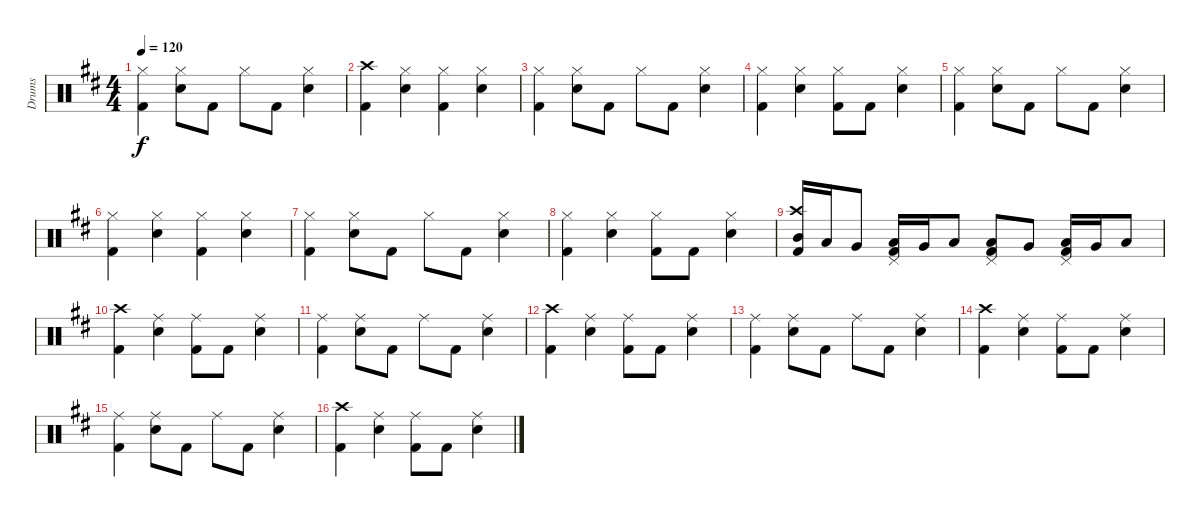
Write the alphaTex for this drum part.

\track ("Drums" "Drums") {instrument percussion}
\staff {score}
\articulation defaults
\ts (4 4)
\tempo 120
\clef neutral
\ks bminor
("Hi-Hat (closed)" "Kick (hit) 2").4{dy f} ("Hi-Hat (closed)" "Electric Snare (hit)").8 "Kick (hit) 2".8 "Hi-Hat (closed)".8 "Kick (hit) 2".8 ("Hi-Hat (closed)" "Electric Snare (hit)").4 |
("Crash high (hit)" "Kick (hit) 2").4 ("Hi-Hat (closed)" "Electric Snare (hit)").4 ("Hi-Hat (closed)" "Kick (hit) 2").4 ("Hi-Hat (closed)" "Electric Snare (hit)").4 |
("Hi-Hat (closed)" "Kick (hit) 2").4 ("Hi-Hat (closed)" "Electric Snare (hit)").8 "Kick (hit) 2".8 "Hi-Hat (closed)".8 "Kick (hit) 2".8 ("Hi-Hat (closed)" "Electric Snare (hit)").4 |
("Hi-Hat (closed)" "Kick (hit) 2").4 ("Hi-Hat (closed)" "Electric Snare (hit)").4 ("Hi-Hat (closed)" "Kick (hit) 2").8 "Kick (hit) 2".8 ("Hi-Hat (closed)" "Electric Snare (hit)").4 |
("Hi-Hat (closed)" "Kick (hit) 2").4 ("Hi-Hat (closed)" "Electric Snare (hit)").8 "Kick (hit) 2".8 "Hi-Hat (closed)".8 "Kick (hit) 2".8 ("Hi-Hat (closed)" "Electric Snare (hit)").4 |
("Hi-Hat (closed)" "Kick (hit) 2").4 ("Hi-Hat (closed)" "Electric Snare (hit)").4 ("Hi-Hat (closed)" "Kick (hit) 2").4 ("Hi-Hat (closed)" "Electric Snare (hit)").4 |
("Hi-Hat (closed)" "Kick (hit) 2").4 ("Hi-Hat (closed)" "Electric Snare (hit)").8 "Kick (hit) 2".8 "Hi-Hat (closed)".8 "Kick (hit) 2".8 ("Hi-Hat (closed)" "Electric Snare (hit)").4 |
("Hi-Hat (closed)" "Kick (hit) 2").4 ("Hi-Hat (closed)" "Electric Snare (hit)").4 ("Hi-Hat (closed)" "Kick (hit) 2").8 "Kick (hit) 2".8 ("Hi-Hat (closed)" "Electric Snare (hit)").4 |
("Crash high (hit)" "Mid Tom (hit)" "Kick (hit) 2").16 "Low Tom (hit)".16 "Very Low Tom (hit)".8 ("Pedal Hi-Hat (hit)" "Low Tom (hit)" "Kick (hit) 2").16 "Very Low Tom (hit)".16 "Low Floor Tom (hit)".8 ("Pedal Hi-Hat (hit)" "Low Tom (hit)" "Kick (hit) 2").8 "Very Low Tom (hit)".8 ("Pedal Hi-Hat (hit)" "Low Tom (hit)" "Kick (hit) 2").16 "Very Low Tom (hit)".16 "Low Floor Tom (hit)".8 |
("Crash high (hit)" "Kick (hit) 2").4 ("Ride (middle)" "Electric Snare (hit)").4 ("Ride (middle)" "Kick (hit) 2").8 "Kick (hit) 2".8 ("Ride (middle)" "Electric Snare (hit)").4 |
("Ride (middle)" "Kick (hit) 2").4 ("Ride (middle)" "Electric Snare (hit)").8 "Kick (hit) 2".8 "Ride (middle)".8 "Kick (hit) 2".8 ("Ride (middle)" "Electric Snare (hit)").4 |
("Crash high (hit)" "Kick (hit) 2").4 ("Ride (middle)" "Electric Snare (hit)").4 ("Ride (middle)" "Kick (hit) 2").8 "Kick (hit) 2".8 ("Ride (middle)" "Electric Snare (hit)").4 |
("Ride (middle)" "Kick (hit) 2").4 ("Ride (middle)" "Electric Snare (hit)").8 "Kick (hit) 2".8 "Ride (middle)".8 "Kick (hit) 2".8 ("Ride (middle)" "Electric Snare (hit)").4 |
("Crash high (hit)" "Kick (hit) 2").4 ("Ride (middle)" "Electric Snare (hit)").4 ("Ride (middle)" "Kick (hit) 2").8 "Kick (hit) 2".8 ("Ride (middle)" "Electric Snare (hit)").4 |
("Ride (middle)" "Kick (hit) 2").4 ("Ride (middle)" "Electric Snare (hit)").8 "Kick (hit) 2".8 "Ride (middle)".8 "Kick (hit) 2".8 ("Ride (middle)" "Electric Snare (hit)").4 |
("Crash high (hit)" "Kick (hit) 2").4 ("Ride (middle)" "Electric Snare (hit)").4 ("Ride (middle)" "Kick (hit) 2").8 "Kick (hit) 2".8 ("Ride (middle)" "Electric Snare (hit)").4
